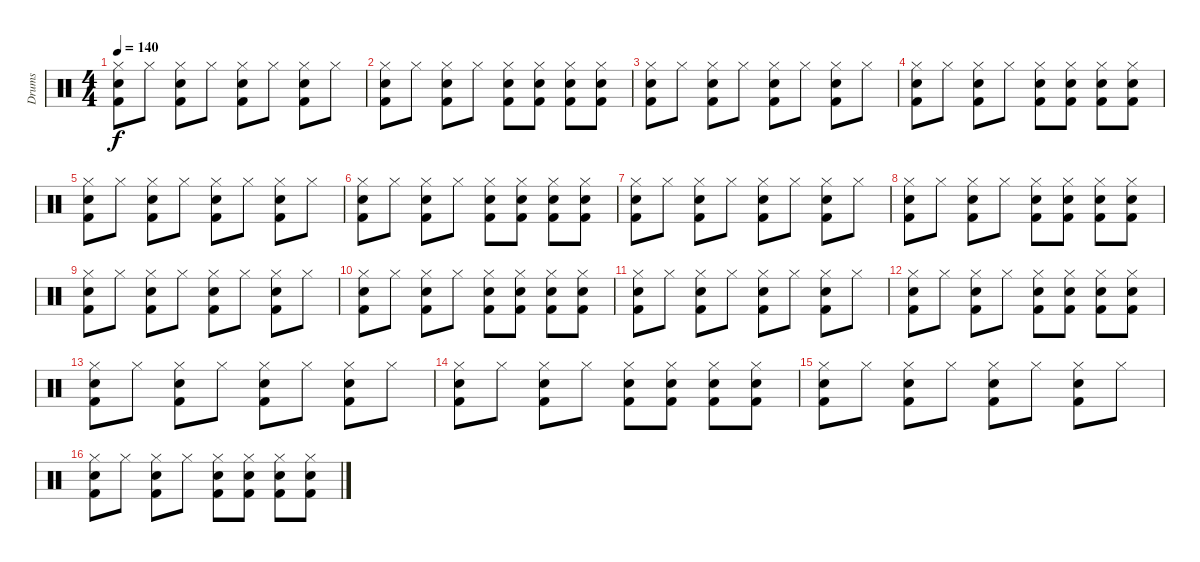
\track ("Drums" "Drums") {instrument percussion}
\staff {score}
\articulation defaults
\ts (4 4)
\tempo 140
\clef neutral
\ks c
("Hi-Hat (closed)" "Snare (hit) 2" "Kick (hit) 2").8{dy f} "Hi-Hat (closed)".8 ("Hi-Hat (closed)" "Snare (hit) 2" "Kick (hit) 2").8 "Hi-Hat (closed)".8 ("Hi-Hat (closed)" "Snare (hit) 2" "Kick (hit) 2").8 "Hi-Hat (closed)".8 ("Hi-Hat (closed)" "Snare (hit) 2" "Kick (hit) 2").8 "Hi-Hat (closed)".8 |
("Hi-Hat (closed)" "Snare (hit) 2" "Kick (hit) 2").8 "Hi-Hat (closed)".8 ("Hi-Hat (closed)" "Snare (hit) 2" "Kick (hit) 2").8 "Hi-Hat (closed)".8 ("Hi-Hat (closed)" "Snare (hit) 2" "Kick (hit) 2").8 ("Hi-Hat (closed)" "Snare (hit) 2" "Kick (hit) 2").8 ("Hi-Hat (closed)" "Snare (hit) 2" "Kick (hit) 2").8 ("Hi-Hat (closed)" "Snare (hit) 2" "Kick (hit) 2").8 |
("Hi-Hat (closed)" "Snare (hit) 2" "Kick (hit) 2").8 "Hi-Hat (closed)".8 ("Hi-Hat (closed)" "Snare (hit) 2" "Kick (hit) 2").8 "Hi-Hat (closed)".8 ("Hi-Hat (closed)" "Snare (hit) 2" "Kick (hit) 2").8 "Hi-Hat (closed)".8 ("Hi-Hat (closed)" "Snare (hit) 2" "Kick (hit) 2").8 "Hi-Hat (closed)".8 |
("Hi-Hat (closed)" "Snare (hit) 2" "Kick (hit) 2").8 "Hi-Hat (closed)".8 ("Hi-Hat (closed)" "Snare (hit) 2" "Kick (hit) 2").8 "Hi-Hat (closed)".8 ("Hi-Hat (closed)" "Snare (hit) 2" "Kick (hit) 2").8 ("Hi-Hat (closed)" "Snare (hit) 2" "Kick (hit) 2").8 ("Hi-Hat (closed)" "Snare (hit) 2" "Kick (hit) 2").8 ("Hi-Hat (closed)" "Snare (hit) 2" "Kick (hit) 2").8 |
("Hi-Hat (closed)" "Snare (hit) 2" "Kick (hit) 2").8 "Hi-Hat (closed)".8 ("Hi-Hat (closed)" "Snare (hit) 2" "Kick (hit) 2").8 "Hi-Hat (closed)".8 ("Hi-Hat (closed)" "Snare (hit) 2" "Kick (hit) 2").8 "Hi-Hat (closed)".8 ("Hi-Hat (closed)" "Snare (hit) 2" "Kick (hit) 2").8 "Hi-Hat (closed)".8 |
("Hi-Hat (closed)" "Snare (hit) 2" "Kick (hit) 2").8 "Hi-Hat (closed)".8 ("Hi-Hat (closed)" "Snare (hit) 2" "Kick (hit) 2").8 "Hi-Hat (closed)".8 ("Hi-Hat (closed)" "Snare (hit) 2" "Kick (hit) 2").8 ("Hi-Hat (closed)" "Snare (hit) 2" "Kick (hit) 2").8 ("Hi-Hat (closed)" "Snare (hit) 2" "Kick (hit) 2").8 ("Hi-Hat (closed)" "Snare (hit) 2" "Kick (hit) 2").8 |
("Hi-Hat (closed)" "Snare (hit) 2" "Kick (hit) 2").8 "Hi-Hat (closed)".8 ("Hi-Hat (closed)" "Snare (hit) 2" "Kick (hit) 2").8 "Hi-Hat (closed)".8 ("Hi-Hat (closed)" "Snare (hit) 2" "Kick (hit) 2").8 "Hi-Hat (closed)".8 ("Hi-Hat (closed)" "Snare (hit) 2" "Kick (hit) 2").8 "Hi-Hat (closed)".8 |
("Hi-Hat (closed)" "Snare (hit) 2" "Kick (hit) 2").8 "Hi-Hat (closed)".8 ("Hi-Hat (closed)" "Snare (hit) 2" "Kick (hit) 2").8 "Hi-Hat (closed)".8 ("Hi-Hat (closed)" "Snare (hit) 2" "Kick (hit) 2").8 ("Hi-Hat (closed)" "Snare (hit) 2" "Kick (hit) 2").8 ("Hi-Hat (closed)" "Snare (hit) 2" "Kick (hit) 2").8 ("Hi-Hat (closed)" "Snare (hit) 2" "Kick (hit) 2").8 |
("Hi-Hat (closed)" "Snare (hit) 2" "Kick (hit) 2").8 "Hi-Hat (closed)".8 ("Hi-Hat (closed)" "Snare (hit) 2" "Kick (hit) 2").8 "Hi-Hat (closed)".8 ("Hi-Hat (closed)" "Snare (hit) 2" "Kick (hit) 2").8 "Hi-Hat (closed)".8 ("Hi-Hat (closed)" "Snare (hit) 2" "Kick (hit) 2").8 "Hi-Hat (closed)".8 |
("Hi-Hat (closed)" "Snare (hit) 2" "Kick (hit) 2").8 "Hi-Hat (closed)".8 ("Hi-Hat (closed)" "Snare (hit) 2" "Kick (hit) 2").8 "Hi-Hat (closed)".8 ("Hi-Hat (closed)" "Snare (hit) 2" "Kick (hit) 2").8 ("Hi-Hat (closed)" "Snare (hit) 2" "Kick (hit) 2").8 ("Hi-Hat (closed)" "Snare (hit) 2" "Kick (hit) 2").8 ("Hi-Hat (closed)" "Snare (hit) 2" "Kick (hit) 2").8 |
("Hi-Hat (closed)" "Snare (hit) 2" "Kick (hit) 2").8 "Hi-Hat (closed)".8 ("Hi-Hat (closed)" "Snare (hit) 2" "Kick (hit) 2").8 "Hi-Hat (closed)".8 ("Hi-Hat (closed)" "Snare (hit) 2" "Kick (hit) 2").8 "Hi-Hat (closed)".8 ("Hi-Hat (closed)" "Snare (hit) 2" "Kick (hit) 2").8 "Hi-Hat (closed)".8 |
("Hi-Hat (closed)" "Snare (hit) 2" "Kick (hit) 2").8 "Hi-Hat (closed)".8 ("Hi-Hat (closed)" "Snare (hit) 2" "Kick (hit) 2").8 "Hi-Hat (closed)".8 ("Hi-Hat (closed)" "Snare (hit) 2" "Kick (hit) 2").8 ("Hi-Hat (closed)" "Snare (hit) 2" "Kick (hit) 2").8 ("Hi-Hat (closed)" "Snare (hit) 2" "Kick (hit) 2").8 ("Hi-Hat (closed)" "Snare (hit) 2" "Kick (hit) 2").8 |
("Hi-Hat (closed)" "Snare (hit) 2" "Kick (hit) 2").8 "Hi-Hat (closed)".8 ("Hi-Hat (closed)" "Snare (hit) 2" "Kick (hit) 2").8 "Hi-Hat (closed)".8 ("Hi-Hat (closed)" "Snare (hit) 2" "Kick (hit) 2").8 "Hi-Hat (closed)".8 ("Hi-Hat (closed)" "Snare (hit) 2" "Kick (hit) 2").8 "Hi-Hat (closed)".8 |
("Hi-Hat (closed)" "Snare (hit) 2" "Kick (hit) 2").8 "Hi-Hat (closed)".8 ("Hi-Hat (closed)" "Snare (hit) 2" "Kick (hit) 2").8 "Hi-Hat (closed)".8 ("Hi-Hat (closed)" "Snare (hit) 2" "Kick (hit) 2").8 ("Hi-Hat (closed)" "Snare (hit) 2" "Kick (hit) 2").8 ("Hi-Hat (closed)" "Snare (hit) 2" "Kick (hit) 2").8 ("Hi-Hat (closed)" "Snare (hit) 2" "Kick (hit) 2").8 |
("Hi-Hat (closed)" "Snare (hit) 2" "Kick (hit) 2").8 "Hi-Hat (closed)".8 ("Hi-Hat (closed)" "Snare (hit) 2" "Kick (hit) 2").8 "Hi-Hat (closed)".8 ("Hi-Hat (closed)" "Snare (hit) 2" "Kick (hit) 2").8 "Hi-Hat (closed)".8 ("Hi-Hat (closed)" "Snare (hit) 2" "Kick (hit) 2").8 "Hi-Hat (closed)".8 |
("Hi-Hat (closed)" "Snare (hit) 2" "Kick (hit) 2").8 "Hi-Hat (closed)".8 ("Hi-Hat (closed)" "Snare (hit) 2" "Kick (hit) 2").8 "Hi-Hat (closed)".8 ("Hi-Hat (closed)" "Snare (hit) 2" "Kick (hit) 2").8 ("Hi-Hat (closed)" "Snare (hit) 2" "Kick (hit) 2").8 ("Hi-Hat (closed)" "Snare (hit) 2" "Kick (hit) 2").8 ("Hi-Hat (closed)" "Snare (hit) 2" "Kick (hit) 2").8
